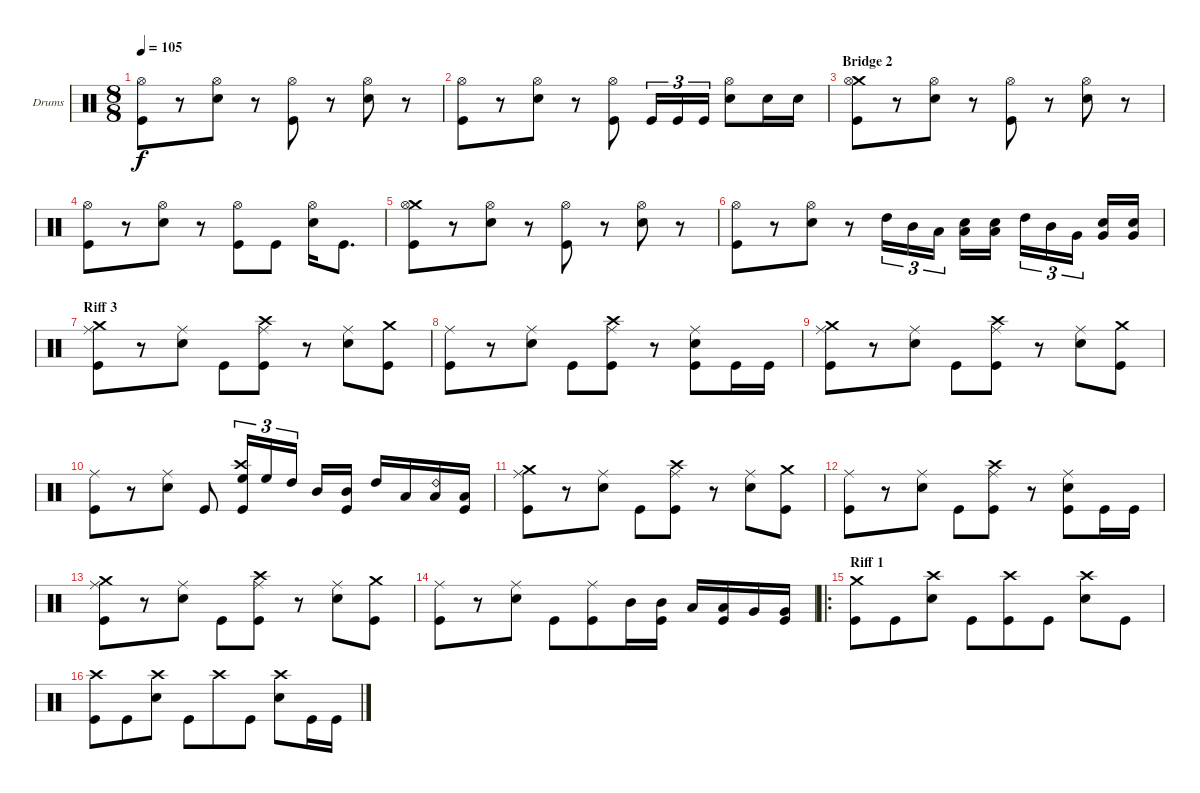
\bracketExtendMode groupsimilarinstruments
\firstSystemTrackNameOrientation horizontal
\otherSystemsTrackNameOrientation horizontal
\track ("Drumkit" "Drums") {instrument percussion}
\staff {score}
\articulation defaults
\ts (8 8)
\tempo 105
\clef neutral
\ks c
("Hi-Hat (open)" "Kick (hit)").8{dy f} r.8 ("Hi-Hat (open)" "Snare (hit) 2").8 r.8 ("Hi-Hat (open)" "Kick (hit)").8 r.8 ("Hi-Hat (open)" "Snare (hit) 2").8 r.8 |
("Hi-Hat (open)" "Kick (hit)").8 r.8 ("Hi-Hat (open)" "Snare (hit) 2").8 r.8 ("Hi-Hat (open)" "Kick (hit)").8 "Kick (hit)".16{tu (3 2)} "Kick (hit)".16{tu (3 2)} "Kick (hit)".16{tu (3 2)} ("Hi-Hat (open)" "Snare (hit) 2").8 "Snare (hit) 2".16 "Snare (hit) 2".16 |
\section ("" "Bridge 2")
("Crash medium (hit)" "Hi-Hat (open)" "Kick (hit)").8 r.8 ("Hi-Hat (open)" "Snare (hit) 2").8 r.8 ("Hi-Hat (open)" "Kick (hit)").8 r.8 ("Hi-Hat (open)" "Snare (hit) 2").8 r.8 |
("Hi-Hat (open)" "Kick (hit)").8 r.8 ("Hi-Hat (open)" "Snare (hit) 2").8 r.8 ("Hi-Hat (open)" "Kick (hit)").8 "Kick (hit)".8 ("Hi-Hat (open)" "Snare (hit) 2").16 "Kick (hit)".8{d} |
("Crash medium (hit)" "Hi-Hat (open)" "Kick (hit)").8 r.8 ("Hi-Hat (open)" "Snare (hit) 2").8 r.8 ("Hi-Hat (open)" "Kick (hit)").8 r.8 ("Hi-Hat (open)" "Snare (hit) 2").8 r.8 |
("Hi-Hat (open)" "Kick (hit)").8 r.8 ("Hi-Hat (open)" "Snare (hit) 2").8 r.8 "High Tom (hit)".16{tu (3 2)} "Mid Tom (hit)".16{tu (3 2)} "Low Tom (hit)".16{tu (3 2)} ("Snare (hit) 2" "Low Tom (hit)").16 ("Snare (hit) 2" "Low Tom (hit)").16 "High Tom (hit)".16{tu (3 2)} "Mid Tom (hit)".16{tu (3 2)} "Very Low Tom (hit)".16{tu (3 2)} ("Snare (hit) 2" "Very Low Tom (hit)").16 ("Snare (hit) 2" "Very Low Tom (hit)").16 |
\section ("" "Riff 3")
("Crash medium (hit)" "Ride (middle)" "Kick (hit)").8 r.8 ("Ride (middle)" "Snare (hit) 2").8 "Kick (hit)".8 ("Crash high (hit)" "Ride (middle)" "Kick (hit)").8 r.8 ("Ride (middle)" "Snare (hit) 2").8 ("Crash medium (hit)" "Kick (hit)").8 |
("Ride (middle)" "Kick (hit)").8 r.8 ("Ride (middle)" "Snare (hit) 2").8 "Kick (hit)".8 ("Crash high (hit)" "Ride (middle)" "Kick (hit)").8 r.8 ("Ride (middle)" "Snare (hit) 2" "Kick (hit)").8 "Kick (hit)".16 "Kick (hit)".16 |
("Crash medium (hit)" "Ride (middle)" "Kick (hit)").8 r.8 ("Ride (middle)" "Snare (hit) 2").8 "Kick (hit)".8 ("Crash high (hit)" "Ride (middle)" "Kick (hit)").8 r.8 ("Ride (middle)" "Snare (hit) 2").8 ("Crash medium (hit)" "Kick (hit)").8 |
("Ride (middle)" "Kick (hit)").8 r.8 ("Ride (middle)" "Snare (hit) 2").8 "Kick (hit)".8 ("Crash high (hit)" "High Floor Tom (hit)" "Kick (hit)").16{tu (3 2)} "High Floor Tom (hit)".16{tu (3 2)} "High Tom (hit)".16{tu (3 2)} "Mid Tom (hit)".16 ("Mid Tom (hit)" "Kick (hit)").16 "High Tom (hit)".16 "Low Tom (hit)".16 ("Ride (bell) 2" "Low Tom (hit)").16 ("Low Tom (hit)" "Kick (hit)").16 |
("Crash medium (hit)" "Ride (middle)" "Kick (hit)").8 r.8 ("Ride (middle)" "Snare (hit) 2").8 "Kick (hit)".8 ("Crash high (hit)" "Ride (middle)" "Kick (hit)").8 r.8 ("Ride (middle)" "Snare (hit) 2").8 ("Crash medium (hit)" "Kick (hit)").8 |
("Ride (middle)" "Kick (hit)").8 r.8 ("Ride (middle)" "Snare (hit) 2").8 "Kick (hit)".8 ("Crash high (hit)" "Ride (middle)" "Kick (hit)").8 r.8 ("Ride (middle)" "Snare (hit) 2" "Kick (hit)").8 "Kick (hit)".16 "Kick (hit)".16 |
("Crash medium (hit)" "Ride (middle)" "Kick (hit)").8 r.8 ("Ride (middle)" "Snare (hit) 2").8 "Kick (hit)".8 ("Crash high (hit)" "Ride (middle)" "Kick (hit)").8 r.8 ("Ride (middle)" "Snare (hit) 2").8 ("Crash medium (hit)" "Kick (hit)").8 |
("Ride (middle)" "Kick (hit)").8 r.8 ("Ride (middle)" "Snare (hit) 2").8 "Kick (hit)".8 ("Ride (middle)" "Kick (hit)").8 "Mid Tom (hit)".16 ("Mid Tom (hit)" "Kick (hit)").16 "Low Tom (hit)".16 ("Low Tom (hit)" "Kick (hit)").16 "Very Low Tom (hit)".16 ("Very Low Tom (hit)" "Kick (hit)").16 |
\ro
\section ("" "Riff 1")
("Crash medium (hit)" "Kick (hit)").8 "Kick (hit)".8 ("Crash high (hit)" "Snare (hit) 2").8 "Kick (hit)".8 ("Crash high (hit)" "Kick (hit)").8 "Kick (hit)".8 ("Crash high (hit)" "Snare (hit) 2").8 "Kick (hit)".8 |
("Crash high (hit)" "Kick (hit)").8 "Kick (hit)".8 ("Crash high (hit)" "Snare (hit) 2").8 "Kick (hit)".8 "Crash high (hit)".8 "Kick (hit)".8 ("Crash high (hit)" "Snare (hit) 2").8 "Kick (hit)".16 "Kick (hit)".16
